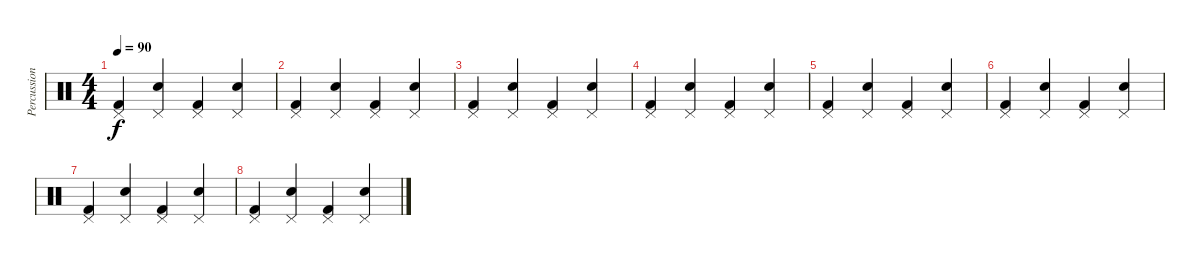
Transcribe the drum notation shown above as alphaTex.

\track ("Percussion" "Percussion") {instrument percussion}
\staff {score}
\articulation defaults
\ts (4 4)
\tempo 90
\clef neutral
\ks c
("Pedal Hi-Hat (hit)" "Kick (hit) 2").4{dy f} ("Pedal Hi-Hat (hit)" "Electric Snare (hit)").4 ("Pedal Hi-Hat (hit)" "Kick (hit) 2").4 ("Pedal Hi-Hat (hit)" "Electric Snare (hit)").4 |
("Pedal Hi-Hat (hit)" "Kick (hit) 2").4 ("Pedal Hi-Hat (hit)" "Electric Snare (hit)").4 ("Pedal Hi-Hat (hit)" "Kick (hit) 2").4 ("Pedal Hi-Hat (hit)" "Electric Snare (hit)").4 |
("Pedal Hi-Hat (hit)" "Kick (hit) 2").4 ("Pedal Hi-Hat (hit)" "Electric Snare (hit)").4 ("Pedal Hi-Hat (hit)" "Kick (hit) 2").4 ("Pedal Hi-Hat (hit)" "Electric Snare (hit)").4 |
("Pedal Hi-Hat (hit)" "Kick (hit) 2").4 ("Pedal Hi-Hat (hit)" "Electric Snare (hit)").4 ("Pedal Hi-Hat (hit)" "Kick (hit) 2").4 ("Pedal Hi-Hat (hit)" "Electric Snare (hit)").4 |
("Pedal Hi-Hat (hit)" "Kick (hit) 2").4 ("Pedal Hi-Hat (hit)" "Electric Snare (hit)").4 ("Pedal Hi-Hat (hit)" "Kick (hit) 2").4 ("Pedal Hi-Hat (hit)" "Electric Snare (hit)").4 |
("Pedal Hi-Hat (hit)" "Kick (hit) 2").4 ("Pedal Hi-Hat (hit)" "Electric Snare (hit)").4 ("Pedal Hi-Hat (hit)" "Kick (hit) 2").4 ("Pedal Hi-Hat (hit)" "Electric Snare (hit)").4 |
("Pedal Hi-Hat (hit)" "Kick (hit) 2").4 ("Pedal Hi-Hat (hit)" "Electric Snare (hit)").4 ("Pedal Hi-Hat (hit)" "Kick (hit) 2").4 ("Pedal Hi-Hat (hit)" "Electric Snare (hit)").4 |
("Pedal Hi-Hat (hit)" "Kick (hit) 2").4 ("Pedal Hi-Hat (hit)" "Electric Snare (hit)").4 ("Pedal Hi-Hat (hit)" "Kick (hit) 2").4 ("Pedal Hi-Hat (hit)" "Electric Snare (hit)").4
